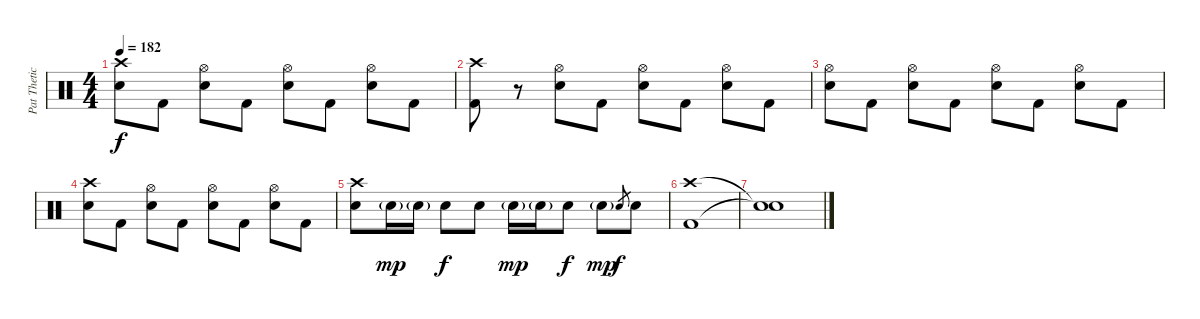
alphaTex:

\track ("Pat Thetic - Drums" "Pat Thetic") {instrument percussion}
\staff {score}
\articulation defaults
\ts (4 4)
\tempo 182
\clef neutral
\ks c
("Crash high (hit)" "Electric Snare (hit)").8{dy f} "Kick (hit) 2".8 ("Hi-Hat (open)" "Electric Snare (hit)").8 "Kick (hit) 2".8 ("Hi-Hat (open)" "Electric Snare (hit)").8 "Kick (hit) 2".8 ("Hi-Hat (open)" "Electric Snare (hit)").8 "Kick (hit) 2".8 |
("Crash high (hit)" "Kick (hit) 2").8 r.8 ("Hi-Hat (open)" "Electric Snare (hit)").8 "Kick (hit) 2".8 ("Hi-Hat (open)" "Electric Snare (hit)").8 "Kick (hit) 2".8 ("Hi-Hat (open)" "Electric Snare (hit)").8 "Kick (hit) 2".8 |
("Hi-Hat (open)" "Electric Snare (hit)").8 "Kick (hit) 2".8 ("Hi-Hat (open)" "Electric Snare (hit)").8 "Kick (hit) 2".8 ("Hi-Hat (open)" "Electric Snare (hit)").8 "Kick (hit) 2".8 ("Hi-Hat (open)" "Electric Snare (hit)").8 "Kick (hit) 2".8 |
("Crash high (hit)" "Electric Snare (hit)").8 "Kick (hit) 2".8 ("Hi-Hat (open)" "Electric Snare (hit)").8 "Kick (hit) 2".8 ("Hi-Hat (open)" "Electric Snare (hit)").8 "Kick (hit) 2".8 ("Hi-Hat (open)" "Electric Snare (hit)").8 "Kick (hit) 2".8 |
("Crash high (hit)" "Electric Snare (hit)").8 "Snare (hit) 2"{g}.16{dy mp} "Snare (hit) 2"{g}.16 "Electric Snare (hit)".8{dy f} "Electric Snare (hit)".8 "Snare (hit) 2"{g}.16{dy mp} "Snare (hit) 2"{g}.16 "Electric Snare (hit)".8{dy f} "Snare (hit) 2"{g}.8{dy mp} "Electric Snare (hit)".8{gr dy f} "Electric Snare (hit)".8 |
("Crash high (hit)" "Kick (hit) 2").1 |
("Snare (hit)"{t} "Snare (hit)"{t}).1
